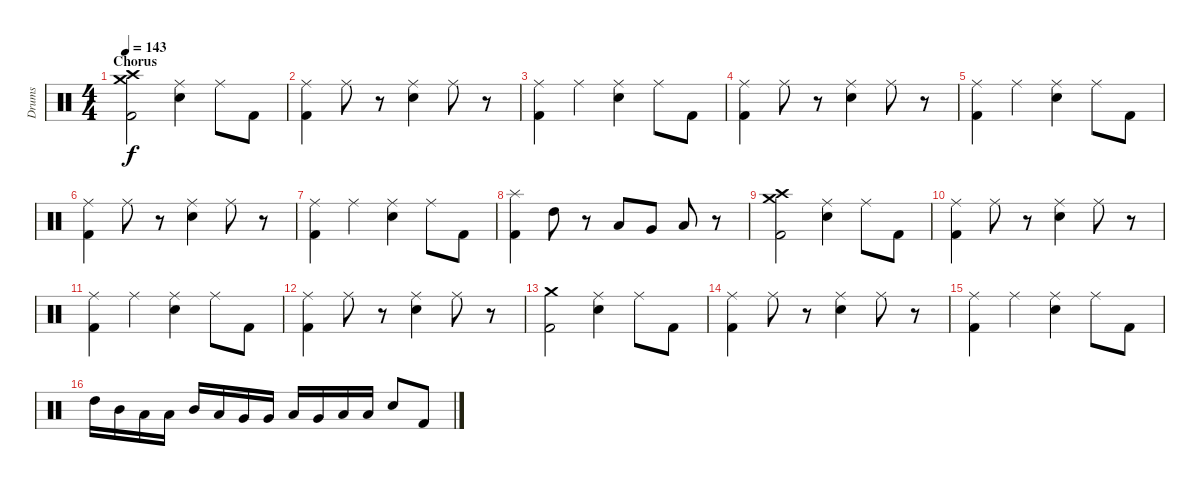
\track ("Drums" "Drums") {instrument percussion}
\staff {score}
\articulation defaults
\ts (4 4)
\section ("" "Chorus")
\tempo 143
\clef neutral
\ks c
("Crash medium (hit)" "Crash high (hit)" "Kick (hit) 2").2{dy f} ("Ride (middle)" "Electric Snare (hit)").4 "Ride (middle)".8 "Kick (hit) 2".8 |
("Ride (middle)" "Kick (hit) 2").4 "Ride (middle)".8 r.8 ("Ride (middle)" "Electric Snare (hit)").4 "Ride (middle)".8 r.8 |
("Ride (middle)" "Kick (hit) 2").4 "Ride (middle)".4 ("Ride (middle)" "Electric Snare (hit)").4 "Ride (middle)".8 "Kick (hit) 2".8 |
("Ride (middle)" "Kick (hit) 2").4 "Ride (middle)".8 r.8 ("Ride (middle)" "Electric Snare (hit)").4 "Ride (middle)".8 r.8 |
("Ride (middle)" "Kick (hit) 2").4 "Ride (middle)".4 ("Ride (middle)" "Electric Snare (hit)").4 "Ride (middle)".8 "Kick (hit) 2".8 |
("Ride (middle)" "Kick (hit) 2").4 "Ride (middle)".8 r.8 ("Ride (middle)" "Electric Snare (hit)").4 "Ride (middle)".8 r.8 |
("Ride (middle)" "Kick (hit) 2").4 "Ride (middle)".4 ("Ride (middle)" "Electric Snare (hit)").4 "Ride (middle)".8 "Kick (hit) 2".8 |
("Splash (hit)" "Kick (hit) 2").4 "High Tom (hit)".8 r.8 "Low Tom (hit)".8 "Very Low Tom (hit)".8 "Low Floor Tom (hit)".8 r.8 |
("Crash medium (hit)" "Crash high (hit)" "Kick (hit) 2").2 ("Ride (middle)" "Electric Snare (hit)").4 "Ride (middle)".8 "Kick (hit) 2".8 |
("Ride (middle)" "Kick (hit) 2").4 "Ride (middle)".8 r.8 ("Ride (middle)" "Electric Snare (hit)").4 "Ride (middle)".8 r.8 |
("Ride (middle)" "Kick (hit) 2").4 "Ride (middle)".4 ("Ride (middle)" "Electric Snare (hit)").4 "Ride (middle)".8 "Kick (hit) 2".8 |
("Ride (middle)" "Kick (hit) 2").4 "Ride (middle)".8 r.8 ("Ride (middle)" "Electric Snare (hit)").4 "Ride (middle)".8 r.8 |
("Crash medium (hit)" "Kick (hit) 2").2 ("Ride (middle)" "Electric Snare (hit)").4 "Ride (middle)".8 "Kick (hit) 2".8 |
("Ride (middle)" "Kick (hit) 2").4 "Ride (middle)".8 r.8 ("Ride (middle)" "Electric Snare (hit)").4 "Ride (middle)".8 r.8 |
("Ride (middle)" "Kick (hit) 2").4 "Ride (middle)".4 ("Ride (middle)" "Electric Snare (hit)").4 "Ride (middle)".8 "Kick (hit) 2".8 |
"High Tom (hit)".16 "Mid Tom (hit)".16 "Low Tom (hit)".16 "Low Tom (hit)".16 "Mid Tom (hit)".16 "Low Tom (hit)".16 "Very Low Tom (hit)".16 "Very Low Tom (hit)".16 "Low Tom (hit)".16 "Very Low Tom (hit)".16 "Low Floor Tom (hit)".16 "Low Floor Tom (hit)".16 "Snare (hit) 2".8 "Kick (hit) 2".8
